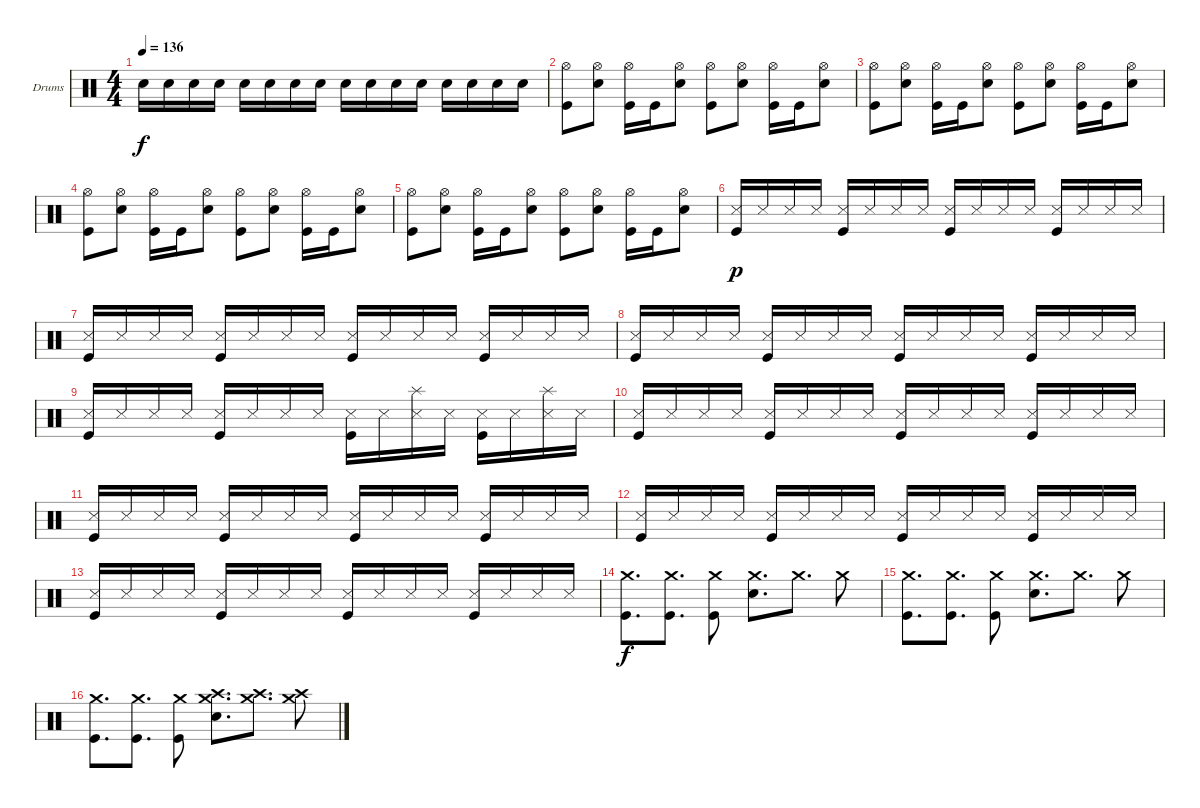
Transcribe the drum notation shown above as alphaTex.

\defaultSystemsLayout 4
\bracketExtendMode groupsimilarinstruments
\firstSystemTrackNameOrientation horizontal
\otherSystemsTrackNameOrientation horizontal
\track ("Lars Ulrich (Drums)" "Drums") {instrument percussion}
\staff {score}
\articulation defaults
\ts (4 4)
\tempo 136
\clef neutral
\ks c "Snare (hit) 2".16{dy f} "Snare (hit) 2".16 "Snare (hit) 2".16 "Snare (hit) 2".16 "Snare (hit) 2".16 "Snare (hit) 2".16 "Snare (hit) 2".16 "Snare (hit) 2".16 "Snare (hit) 2".16 "Snare (hit) 2".16 "Snare (hit) 2".16 "Snare (hit) 2".16 "Snare (hit) 2".16 "Snare (hit) 2".16 "Snare (hit) 2".16 "Snare (hit) 2".16
|
("Hi-Hat (open)" "Kick (hit)").8 ("Hi-Hat (open)" "Snare (hit) 2").8 ("Hi-Hat (open)" "Kick (hit)").16 "Kick (hit)".16 ("Hi-Hat (open)" "Snare (hit) 2").8 ("Hi-Hat (open)" "Kick (hit)").8 ("Hi-Hat (open)" "Snare (hit) 2").8 ("Hi-Hat (open)" "Kick (hit)").16 "Kick (hit)".16 ("Hi-Hat (open)" "Snare (hit) 2").8 |
("Hi-Hat (open)" "Kick (hit)").8 ("Hi-Hat (open)" "Snare (hit) 2").8 ("Hi-Hat (open)" "Kick (hit)").16 "Kick (hit)".16 ("Hi-Hat (open)" "Snare (hit) 2").8 ("Hi-Hat (open)" "Kick (hit)").8 ("Hi-Hat (open)" "Snare (hit) 2").8 ("Hi-Hat (open)" "Kick (hit)").16 "Kick (hit)".16 ("Hi-Hat (open)" "Snare (hit) 2").8 |
("Hi-Hat (open)" "Kick (hit)").8 ("Hi-Hat (open)" "Snare (hit) 2").8 ("Hi-Hat (open)" "Kick (hit)").16 "Kick (hit)".16 ("Hi-Hat (open)" "Snare (hit) 2").8 ("Hi-Hat (open)" "Kick (hit)").8 ("Hi-Hat (open)" "Snare (hit) 2").8 ("Hi-Hat (open)" "Kick (hit)").16 "Kick (hit)".16 ("Hi-Hat (open)" "Snare (hit) 2").8 |
("Hi-Hat (open)" "Kick (hit)").8 ("Hi-Hat (open)" "Snare (hit) 2").8 ("Hi-Hat (open)" "Kick (hit)").16 "Kick (hit)".16 ("Hi-Hat (open)" "Snare (hit) 2").8 ("Hi-Hat (open)" "Kick (hit)").8 ("Hi-Hat (open)" "Snare (hit) 2").8 ("Hi-Hat (open)" "Kick (hit)").16 "Kick (hit)".16 ("Hi-Hat (open)" "Snare (hit) 2").8 |
("Snare (side stick) 3" "Kick (hit)").16{dy p} "Snare (side stick) 3".16 "Snare (side stick) 3".16 "Snare (side stick) 3".16 ("Snare (side stick) 3" "Kick (hit)").16 "Snare (side stick) 3".16 "Snare (side stick) 3".16 "Snare (side stick) 3".16 ("Snare (side stick) 3" "Kick (hit)").16 "Snare (side stick) 3".16 "Snare (side stick) 3".16 "Snare (side stick) 3".16 ("Snare (side stick) 3" "Kick (hit)").16 "Snare (side stick) 3".16 "Snare (side stick) 3".16 "Snare (side stick) 3".16 |
("Snare (side stick) 3" "Kick (hit)").16 "Snare (side stick) 3".16 "Snare (side stick) 3".16 "Snare (side stick) 3".16 ("Snare (side stick) 3" "Kick (hit)").16 "Snare (side stick) 3".16 "Snare (side stick) 3".16 "Snare (side stick) 3".16 ("Snare (side stick) 3" "Kick (hit)").16 "Snare (side stick) 3".16 "Snare (side stick) 3".16 "Snare (side stick) 3".16 ("Snare (side stick) 3" "Kick (hit)").16 "Snare (side stick) 3".16 "Snare (side stick) 3".16 "Snare (side stick) 3".16 |
("Snare (side stick) 3" "Kick (hit)").16 "Snare (side stick) 3".16 "Snare (side stick) 3".16 "Snare (side stick) 3".16 ("Snare (side stick) 3" "Kick (hit)").16 "Snare (side stick) 3".16 "Snare (side stick) 3".16 "Snare (side stick) 3".16 ("Snare (side stick) 3" "Kick (hit)").16 "Snare (side stick) 3".16 "Snare (side stick) 3".16 "Snare (side stick) 3".16 ("Snare (side stick) 3" "Kick (hit)").16 "Snare (side stick) 3".16 "Snare (side stick) 3".16 "Snare (side stick) 3".16 |
("Snare (side stick) 3" "Kick (hit)").16 "Snare (side stick) 3".16 "Snare (side stick) 3".16 "Snare (side stick) 3".16 ("Snare (side stick) 3" "Kick (hit)").16 "Snare (side stick) 3".16 "Snare (side stick) 3".16 "Snare (side stick) 3".16 ("Snare (side stick) 3" "Kick (hit)").16 "Snare (side stick) 3".16 ("Splash (hit)" "Snare (side stick) 3").16 "Snare (side stick) 3".16 ("Snare (side stick) 3" "Kick (hit)").16 "Snare (side stick) 3".16 ("Splash (hit)" "Snare (side stick) 3").16 "Snare (side stick) 3".16 |
("Snare (side stick) 3" "Kick (hit)").16 "Snare (side stick) 3".16 "Snare (side stick) 3".16 "Snare (side stick) 3".16 ("Snare (side stick) 3" "Kick (hit)").16 "Snare (side stick) 3".16 "Snare (side stick) 3".16 "Snare (side stick) 3".16 ("Snare (side stick) 3" "Kick (hit)").16 "Snare (side stick) 3".16 "Snare (side stick) 3".16 "Snare (side stick) 3".16 ("Snare (side stick) 3" "Kick (hit)").16 "Snare (side stick) 3".16 "Snare (side stick) 3".16 "Snare (side stick) 3".16 |
("Snare (side stick) 3" "Kick (hit)").16 "Snare (side stick) 3".16 "Snare (side stick) 3".16 "Snare (side stick) 3".16 ("Snare (side stick) 3" "Kick (hit)").16 "Snare (side stick) 3".16 "Snare (side stick) 3".16 "Snare (side stick) 3".16 ("Snare (side stick) 3" "Kick (hit)").16 "Snare (side stick) 3".16 "Snare (side stick) 3".16 "Snare (side stick) 3".16 ("Snare (side stick) 3" "Kick (hit)").16 "Snare (side stick) 3".16 "Snare (side stick) 3".16 "Snare (side stick) 3".16 |
("Snare (side stick) 3" "Kick (hit)").16 "Snare (side stick) 3".16 "Snare (side stick) 3".16 "Snare (side stick) 3".16 ("Snare (side stick) 3" "Kick (hit)").16 "Snare (side stick) 3".16 "Snare (side stick) 3".16 "Snare (side stick) 3".16 ("Snare (side stick) 3" "Kick (hit)").16 "Snare (side stick) 3".16 "Snare (side stick) 3".16 "Snare (side stick) 3".16 ("Snare (side stick) 3" "Kick (hit)").16 "Snare (side stick) 3".16 "Snare (side stick) 3".16 "Snare (side stick) 3".16 |
("Snare (side stick) 3" "Kick (hit)").16 "Snare (side stick) 3".16 "Snare (side stick) 3".16 "Snare (side stick) 3".16 ("Snare (side stick) 3" "Kick (hit)").16 "Snare (side stick) 3".16 "Snare (side stick) 3".16 "Snare (side stick) 3".16 ("Snare (side stick) 3" "Kick (hit)").16 "Snare (side stick) 3".16 "Snare (side stick) 3".16 "Snare (side stick) 3".16 ("Snare (side stick) 3" "Kick (hit)").16 "Snare (side stick) 3".16 "Snare (side stick) 3".16 "Snare (side stick) 3".16 |
("Crash medium (hit)" "Kick (hit)").8{d dy f} ("Crash medium (hit)" "Kick (hit)").8{d} ("Crash medium (hit)" "Kick (hit)").8 ("Crash medium (hit)" "Snare (hit) 2").8{d} "Crash medium (hit)".8{d} "Crash medium (hit)".8 |
("Crash medium (hit)" "Kick (hit)").8{d} ("Crash medium (hit)" "Kick (hit)").8{d} ("Crash medium (hit)" "Kick (hit)").8 ("Crash medium (hit)" "Snare (hit) 2").8{d} "Crash medium (hit)".8{d} "Crash medium (hit)".8 |
("Crash medium (hit)" "Kick (hit)").8{d} ("Crash medium (hit)" "Kick (hit)").8{d} ("Crash medium (hit)" "Kick (hit)").8 ("Crash high (hit)" "Crash medium (hit)" "Snare (hit) 2").8{d} ("Crash high (hit)" "Crash medium (hit)").8{d} ("Crash high (hit)" "Crash medium (hit)").8
